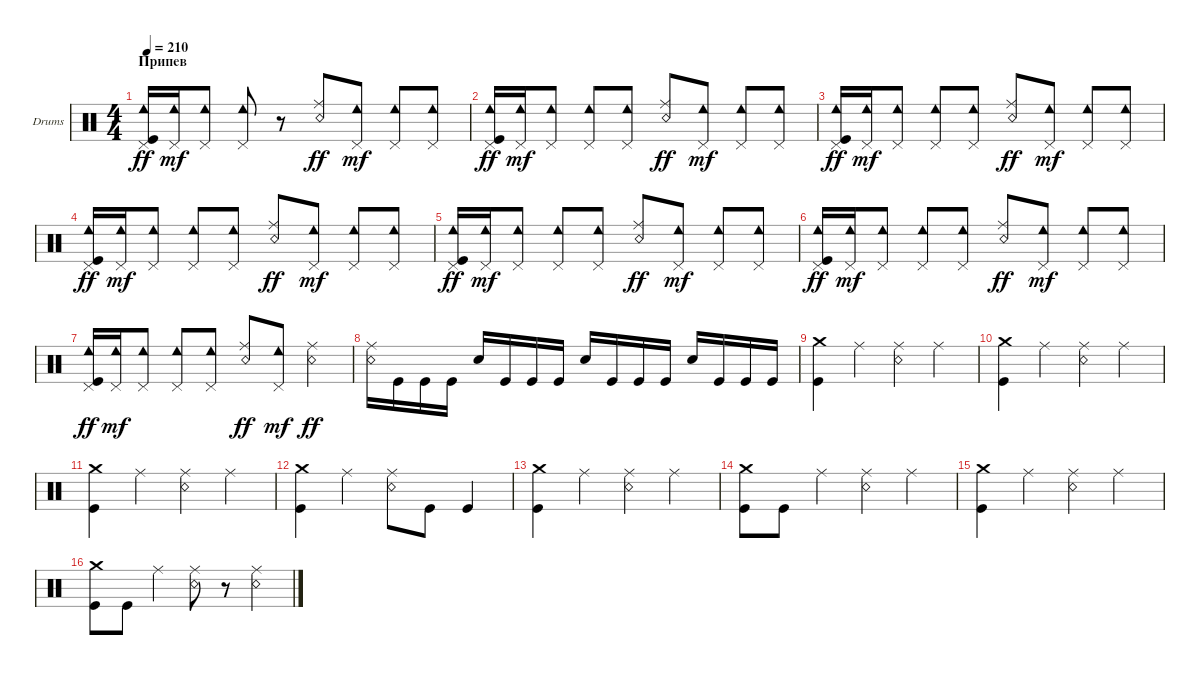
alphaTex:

\defaultSystemsLayout 4
\bracketExtendMode groupsimilarinstruments
\firstSystemTrackNameOrientation horizontal
\otherSystemsTrackNameOrientation horizontal
\track ("Drumkit" "Drums") {instrument percussion}
\staff {score}
\articulation defaults
\ts (4 4)
\section ("" "Припев")
\tempo 210
\clef neutral
\ks c
("Kick (hit)" "Cowbell low (hit)" "Pedal Hi-Hat (hit)").16{dy ff} ("Cowbell low (hit)" "Pedal Hi-Hat (hit)").16{dy mf} ("Cowbell low (hit)" "Pedal Hi-Hat (hit)").8 ("Cowbell low (hit)" "Pedal Hi-Hat (hit)").8 r.8 ("Snare (rim shot)" "Ride (middle)").8{dy ff} ("Cowbell low (hit)" "Pedal Hi-Hat (hit)").8{dy mf} ("Cowbell low (hit)" "Pedal Hi-Hat (hit)").8 ("Cowbell low (hit)" "Pedal Hi-Hat (hit)").8 |
("Kick (hit)" "Cowbell low (hit)" "Pedal Hi-Hat (hit)").16{dy ff} ("Cowbell low (hit)" "Pedal Hi-Hat (hit)").16{dy mf} ("Cowbell low (hit)" "Pedal Hi-Hat (hit)").8 ("Cowbell low (hit)" "Pedal Hi-Hat (hit)").8 ("Cowbell low (hit)" "Pedal Hi-Hat (hit)").8 ("Snare (rim shot)" "Ride (middle)").8{dy ff} ("Cowbell low (hit)" "Pedal Hi-Hat (hit)").8{dy mf} ("Cowbell low (hit)" "Pedal Hi-Hat (hit)").8 ("Cowbell low (hit)" "Pedal Hi-Hat (hit)").8 |
("Kick (hit)" "Cowbell low (hit)" "Pedal Hi-Hat (hit)").16{dy ff} ("Cowbell low (hit)" "Pedal Hi-Hat (hit)").16{dy mf} ("Cowbell low (hit)" "Pedal Hi-Hat (hit)").8 ("Cowbell low (hit)" "Pedal Hi-Hat (hit)").8 ("Cowbell low (hit)" "Pedal Hi-Hat (hit)").8 ("Snare (rim shot)" "Ride (middle)").8{dy ff} ("Cowbell low (hit)" "Pedal Hi-Hat (hit)").8{dy mf} ("Cowbell low (hit)" "Pedal Hi-Hat (hit)").8 ("Cowbell low (hit)" "Pedal Hi-Hat (hit)").8 |
("Kick (hit)" "Cowbell low (hit)" "Pedal Hi-Hat (hit)").16{dy ff} ("Cowbell low (hit)" "Pedal Hi-Hat (hit)").16{dy mf} ("Cowbell low (hit)" "Pedal Hi-Hat (hit)").8 ("Cowbell low (hit)" "Pedal Hi-Hat (hit)").8 ("Cowbell low (hit)" "Pedal Hi-Hat (hit)").8 ("Snare (rim shot)" "Ride (middle)").8{dy ff} ("Cowbell low (hit)" "Pedal Hi-Hat (hit)").8{dy mf} ("Cowbell low (hit)" "Pedal Hi-Hat (hit)").8 ("Cowbell low (hit)" "Pedal Hi-Hat (hit)").8 |
("Kick (hit)" "Cowbell low (hit)" "Pedal Hi-Hat (hit)").16{dy ff} ("Cowbell low (hit)" "Pedal Hi-Hat (hit)").16{dy mf} ("Cowbell low (hit)" "Pedal Hi-Hat (hit)").8 ("Cowbell low (hit)" "Pedal Hi-Hat (hit)").8 ("Cowbell low (hit)" "Pedal Hi-Hat (hit)").8 ("Snare (rim shot)" "Ride (middle)").8{dy ff} ("Cowbell low (hit)" "Pedal Hi-Hat (hit)").8{dy mf} ("Cowbell low (hit)" "Pedal Hi-Hat (hit)").8 ("Cowbell low (hit)" "Pedal Hi-Hat (hit)").8 |
("Kick (hit)" "Cowbell low (hit)" "Pedal Hi-Hat (hit)").16{dy ff} ("Cowbell low (hit)" "Pedal Hi-Hat (hit)").16{dy mf} ("Cowbell low (hit)" "Pedal Hi-Hat (hit)").8 ("Cowbell low (hit)" "Pedal Hi-Hat (hit)").8 ("Cowbell low (hit)" "Pedal Hi-Hat (hit)").8 ("Snare (rim shot)" "Ride (middle)").8{dy ff} ("Cowbell low (hit)" "Pedal Hi-Hat (hit)").8{dy mf} ("Cowbell low (hit)" "Pedal Hi-Hat (hit)").8 ("Cowbell low (hit)" "Pedal Hi-Hat (hit)").8 |
("Kick (hit)" "Cowbell low (hit)" "Pedal Hi-Hat (hit)").16{dy ff} ("Cowbell low (hit)" "Pedal Hi-Hat (hit)").16{dy mf} ("Cowbell low (hit)" "Pedal Hi-Hat (hit)").8 ("Cowbell low (hit)" "Pedal Hi-Hat (hit)").8 ("Cowbell low (hit)" "Pedal Hi-Hat (hit)").8 ("Snare (rim shot)" "Ride (middle)").8{dy ff} ("Cowbell low (hit)" "Pedal Hi-Hat (hit)").8{dy mf} ("Snare (rim shot)" "Ride (middle)").4{dy ff} |
("Snare (rim shot)" "Ride (middle)").16 "Kick (hit)".16 "Kick (hit)".16 "Kick (hit)".16 "Snare (hit) 2".16 "Kick (hit)".16 "Kick (hit)".16 "Kick (hit)".16 "Snare (hit) 2".16 "Kick (hit)".16 "Kick (hit)".16 "Kick (hit)".16 "Snare (hit) 2".16 "Kick (hit)".16 "Kick (hit)".16 "Kick (hit)".16 |
("Kick (hit)" "Crash medium (hit)").4 "Ride (middle)".4 ("Snare (rim shot)" "Ride (middle)").4 "Ride (middle)".4 |
("Kick (hit)" "Crash medium (hit)").4 "Ride (middle)".4 ("Snare (rim shot)" "Ride (middle)").4 "Ride (middle)".4 |
("Kick (hit)" "Crash medium (hit)").4 "Ride (middle)".4 ("Snare (rim shot)" "Ride (middle)").4 "Ride (middle)".4 |
("Kick (hit)" "Crash medium (hit)").4 "Ride (middle)".4 ("Snare (rim shot)" "Ride (middle)").8 "Kick (hit)".8 "Kick (hit)".4 |
("Kick (hit)" "Crash medium (hit)").4 "Ride (middle)".4 ("Snare (rim shot)" "Ride (middle)").4 "Ride (middle)".4 |
("Kick (hit)" "Crash medium (hit)").8 "Kick (hit)".8 "Ride (middle)".4 ("Snare (rim shot)" "Ride (middle)").4 "Ride (middle)".4 |
("Kick (hit)" "Crash medium (hit)").4 "Ride (middle)".4 ("Snare (rim shot)" "Ride (middle)").4 "Ride (middle)".4 |
("Kick (hit)" "Crash medium (hit)").8 "Kick (hit)".8 "Ride (middle)".4 ("Snare (rim shot)" "Ride (middle)").8 r.8 ("Snare (rim shot)" "Ride (middle)").4
